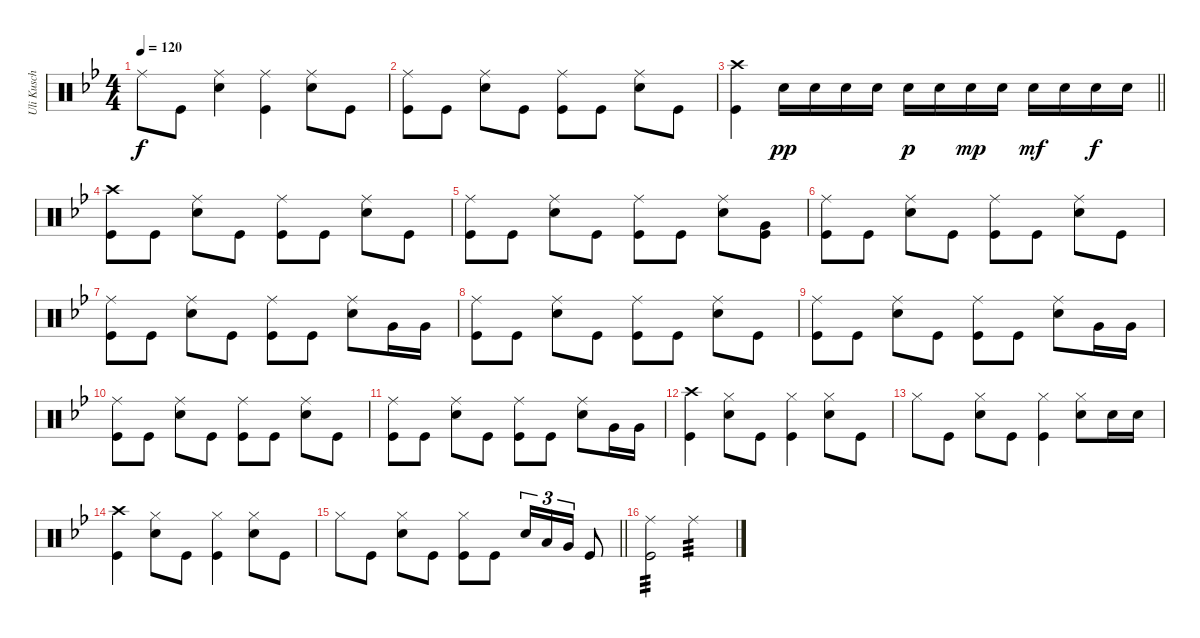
\track ("Uli Kusch" "Uli Kusch") {instrument percussion}
\staff {score}
\articulation defaults
\ts (4 4)
\tempo 120
\clef neutral
\ks gminor "Ride (middle)".8{dy f} "Kick (hit)".8
("Ride (middle)" "Snare (hit) 2").4 ("Ride (middle)" "Kick (hit)").4 ("Ride (middle)" "Snare (hit) 2").8 "Kick (hit)".8 |
("Ride (middle)" "Kick (hit)").8 "Kick (hit)".8 ("Ride (middle)" "Snare (hit) 2").8 "Kick (hit)".8 ("Ride (middle)" "Kick (hit)").8 "Kick (hit)".8 ("Ride (middle)" "Snare (hit) 2").8 "Kick (hit)".8 |
\barLineRight lightlight
("Crash high (hit)" "Kick (hit)").4 "Snare (hit) 2".16{dy pp} "Snare (hit) 2".16 "Snare (hit) 2".16 "Snare (hit) 2".16 "Snare (hit) 2".16{dy p} "Snare (hit) 2".16 "Snare (hit) 2".16{dy mp} "Snare (hit) 2".16 "Snare (hit) 2".16{dy mf} "Snare (hit) 2".16 "Snare (hit) 2".16{dy f} "Snare (hit) 2".16 |
("Crash high (hit)" "Kick (hit)").8 "Kick (hit)".8 ("Ride (middle)" "Snare (hit) 2").8 "Kick (hit)".8 ("Ride (middle)" "Kick (hit)").8 "Kick (hit)".8 ("Ride (middle)" "Snare (hit) 2").8 "Kick (hit)".8 |
("Ride (middle)" "Kick (hit)").8 "Kick (hit)".8 ("Ride (middle)" "Snare (hit) 2").8 "Kick (hit)".8 ("Ride (middle)" "Kick (hit)").8 "Kick (hit)".8 ("Ride (middle)" "Snare (hit) 2").8 ("Very Low Tom (hit)" "Kick (hit)").8 |
("Ride (middle)" "Kick (hit)").8 "Kick (hit)".8 ("Ride (middle)" "Snare (hit) 2").8 "Kick (hit)".8 ("Ride (middle)" "Kick (hit)").8 "Kick (hit)".8 ("Ride (middle)" "Snare (hit) 2").8 "Kick (hit)".8 |
("Ride (middle)" "Kick (hit)").8 "Kick (hit)".8 ("Ride (middle)" "Snare (hit) 2").8 "Kick (hit)".8 ("Ride (middle)" "Kick (hit)").8 "Kick (hit)".8 ("Ride (middle)" "Snare (hit) 2").8 "Very Low Tom (hit)".16 "Very Low Tom (hit)".16 |
("Ride (middle)" "Kick (hit)").8 "Kick (hit)".8 ("Ride (middle)" "Snare (hit) 2").8 "Kick (hit)".8 ("Ride (middle)" "Kick (hit)").8 "Kick (hit)".8 ("Ride (middle)" "Snare (hit) 2").8 "Kick (hit)".8 |
("Ride (middle)" "Kick (hit)").8 "Kick (hit)".8 ("Ride (middle)" "Snare (hit) 2").8 "Kick (hit)".8 ("Ride (middle)" "Kick (hit)").8 "Kick (hit)".8 ("Ride (middle)" "Snare (hit) 2").8 "Very Low Tom (hit)".16 "Very Low Tom (hit)".16 |
("Ride (middle)" "Kick (hit)").8 "Kick (hit)".8 ("Ride (middle)" "Snare (hit) 2").8 "Kick (hit)".8 ("Ride (middle)" "Kick (hit)").8 "Kick (hit)".8 ("Ride (middle)" "Snare (hit) 2").8 "Kick (hit)".8 |
("Ride (middle)" "Kick (hit)").8 "Kick (hit)".8 ("Ride (middle)" "Snare (hit) 2").8 "Kick (hit)".8 ("Ride (middle)" "Kick (hit)").8 "Kick (hit)".8 ("Ride (middle)" "Snare (hit) 2").8 "Very Low Tom (hit)".16 "Very Low Tom (hit)".16 |
("Crash high (hit)" "Kick (hit)").4 ("Hi-Hat (closed)" "Snare (hit) 2").8 "Kick (hit)".8 ("Hi-Hat (closed)" "Kick (hit)").4 ("Hi-Hat (closed)" "Snare (hit) 2").8 "Kick (hit)".8 |
"Hi-Hat (closed)".8 "Kick (hit)".8 ("Hi-Hat (closed)" "Snare (hit) 2").8 "Kick (hit)".8 ("Hi-Hat (closed)" "Kick (hit)").4 ("Hi-Hat (closed)" "Snare (hit) 2").8 "Snare (hit) 2".16 "Snare (hit) 2".16 |
("Crash high (hit)" "Kick (hit)").4 ("Hi-Hat (closed)" "Snare (hit) 2").8 "Kick (hit)".8 ("Hi-Hat (closed)" "Kick (hit)").4 ("Hi-Hat (closed)" "Snare (hit) 2").8 "Kick (hit)".8 |
\barLineRight lightlight "Hi-Hat (closed)".8 "Kick (hit)".8
("Hi-Hat (closed)" "Snare (hit) 2").8 "Kick (hit)".8 ("Hi-Hat (closed)" "Kick (hit)").8 "Kick (hit)".8 "Snare (hit) 2".16{tu (3 2)} "Low Tom (hit)".16{tu (3 2)} "Very Low Tom (hit)".16{tu (3 2)} "Kick (hit)".8 |
("Ride (middle)" "Kick (hit)").2{tp 3} "Ride (middle)".2{tp 3}
